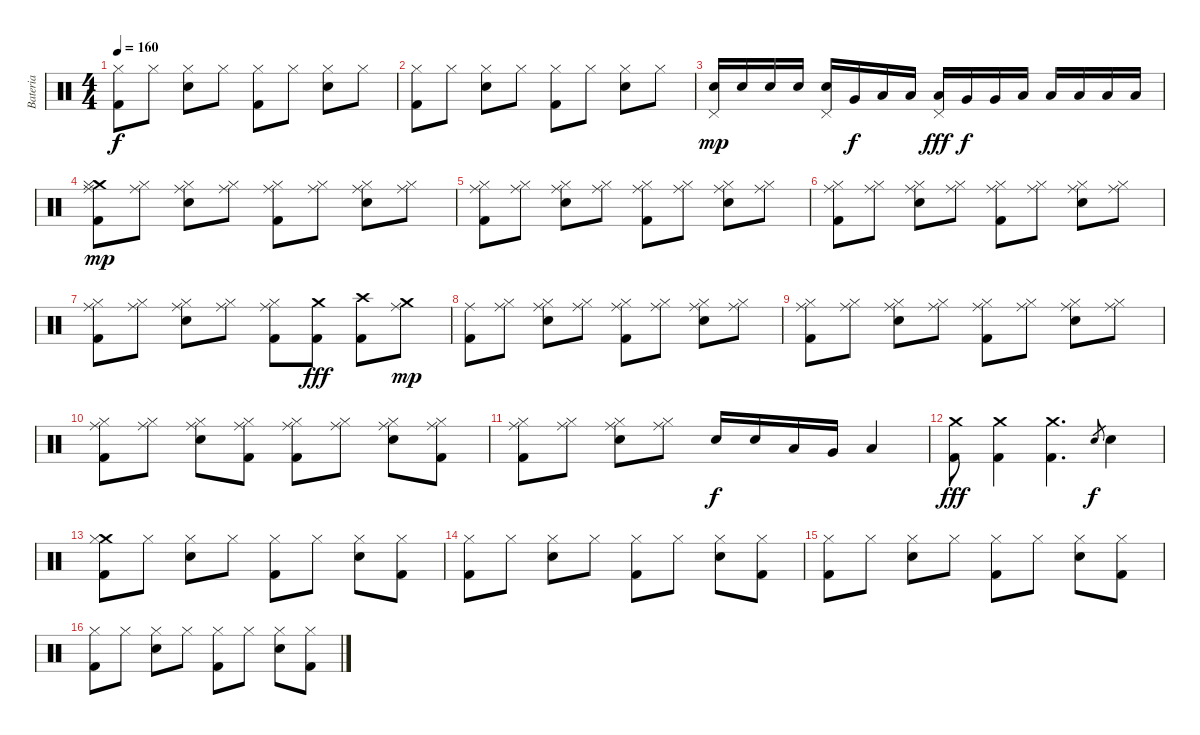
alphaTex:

\track ("Bateria" "Bateria") {instrument percussion}
\staff {score}
\articulation defaults
\ts (4 4)
\tempo 160
\clef neutral
\ks c
("Hi-Hat (closed)" "Kick (hit) 2").8{dy f} "Hi-Hat (closed)".8 ("Hi-Hat (closed)" "Electric Snare (hit)").8 "Hi-Hat (closed)".8 ("Hi-Hat (closed)" "Kick (hit) 2").8 "Hi-Hat (closed)".8 ("Hi-Hat (closed)" "Electric Snare (hit)").8 "Hi-Hat (closed)".8 |
("Hi-Hat (closed)" "Kick (hit) 2").8 "Hi-Hat (closed)".8 ("Hi-Hat (closed)" "Electric Snare (hit)").8 "Hi-Hat (closed)".8 ("Hi-Hat (closed)" "Kick (hit) 2").8 "Hi-Hat (closed)".8 ("Hi-Hat (closed)" "Electric Snare (hit)").8 "Hi-Hat (closed)".8 |
("Pedal Hi-Hat (hit)" "Electric Snare (hit)").16{dy mp} "Electric Snare (hit)".16 "Electric Snare (hit)".16 "Electric Snare (hit)".16 ("Pedal Hi-Hat (hit)" "Electric Snare (hit)").16 "Very Low Tom (hit)".16{dy f} "Low Tom (hit)".16 "Low Tom (hit)".16 ("Pedal Hi-Hat (hit)" "Low Tom (hit)").16{dy fff} "Very Low Tom (hit)".16{dy f} "Very Low Tom (hit)".16 "Low Floor Tom (hit)".16 "Low Floor Tom (hit)".16 "Low Floor Tom (hit)".16 "Low Floor Tom (hit)".16 "Low Floor Tom (hit)".16 |
("Crash medium (hit)" "Hi-Hat (closed)" "Kick (hit) 2" "Ride (middle)").8{dy mp} ("Hi-Hat (closed)" "Ride (middle)").8 ("Hi-Hat (closed)" "Electric Snare (hit)" "Ride (middle)").8 ("Hi-Hat (closed)" "Ride (middle)").8 ("Hi-Hat (closed)" "Kick (hit) 2" "Ride (middle)").8 ("Hi-Hat (closed)" "Ride (middle)").8 ("Hi-Hat (closed)" "Electric Snare (hit)" "Ride (middle)").8 ("Hi-Hat (closed)" "Ride (middle)").8 |
("Hi-Hat (closed)" "Kick (hit) 2" "Ride (middle)").8 ("Hi-Hat (closed)" "Ride (middle)").8 ("Hi-Hat (closed)" "Electric Snare (hit)" "Ride (middle)").8 ("Hi-Hat (closed)" "Ride (middle)").8 ("Hi-Hat (closed)" "Kick (hit) 2" "Ride (middle)").8 ("Hi-Hat (closed)" "Ride (middle)").8 ("Hi-Hat (closed)" "Electric Snare (hit)" "Ride (middle)").8 ("Hi-Hat (closed)" "Ride (middle)").8 |
("Hi-Hat (closed)" "Kick (hit) 2" "Ride (middle)").8 ("Hi-Hat (closed)" "Ride (middle)").8 ("Hi-Hat (closed)" "Electric Snare (hit)" "Ride (middle)").8 ("Hi-Hat (closed)" "Ride (middle)").8 ("Hi-Hat (closed)" "Kick (hit) 2" "Ride (middle)").8 ("Hi-Hat (closed)" "Ride (middle)").8 ("Hi-Hat (closed)" "Electric Snare (hit)" "Ride (middle)").8 ("Hi-Hat (closed)" "Ride (middle)").8 |
("Hi-Hat (closed)" "Kick (hit) 2" "Ride (middle)").8 ("Hi-Hat (closed)" "Ride (middle)").8 ("Hi-Hat (closed)" "Electric Snare (hit)" "Ride (middle)").8 ("Hi-Hat (closed)" "Ride (middle)").8 ("Hi-Hat (closed)" "Kick (hit) 2" "Ride (middle)").8 ("Crash medium (hit)" "Kick (hit) 2").8{dy fff} ("Crash high (hit)" "Kick (hit) 2").8 ("Crash medium (hit)" "Ride (middle)").8{dy mp} |
("Kick (hit) 2" "Ride (middle)").8 ("Hi-Hat (closed)" "Ride (middle)").8 ("Hi-Hat (closed)" "Electric Snare (hit)" "Ride (middle)").8 ("Hi-Hat (closed)" "Ride (middle)").8 ("Hi-Hat (closed)" "Kick (hit) 2" "Ride (middle)").8 ("Hi-Hat (closed)" "Ride (middle)").8 ("Hi-Hat (closed)" "Electric Snare (hit)" "Ride (middle)").8 ("Hi-Hat (closed)" "Ride (middle)").8 |
("Hi-Hat (closed)" "Kick (hit) 2" "Ride (middle)").8 ("Hi-Hat (closed)" "Ride (middle)").8 ("Hi-Hat (closed)" "Electric Snare (hit)" "Ride (middle)").8 ("Hi-Hat (closed)" "Ride (middle)").8 ("Hi-Hat (closed)" "Kick (hit) 2" "Ride (middle)").8 ("Hi-Hat (closed)" "Ride (middle)").8 ("Hi-Hat (closed)" "Electric Snare (hit)" "Ride (middle)").8 ("Hi-Hat (closed)" "Ride (middle)").8 |
("Hi-Hat (closed)" "Kick (hit) 2" "Ride (middle)").8 ("Hi-Hat (closed)" "Ride (middle)").8 ("Hi-Hat (closed)" "Electric Snare (hit)" "Ride (middle)").8 ("Hi-Hat (closed)" "Kick (hit) 2" "Ride (middle)").8 ("Hi-Hat (closed)" "Kick (hit) 2" "Ride (middle)").8 ("Hi-Hat (closed)" "Ride (middle)").8 ("Hi-Hat (closed)" "Electric Snare (hit)" "Ride (middle)").8 ("Hi-Hat (closed)" "Kick (hit) 2" "Ride (middle)").8 |
("Hi-Hat (closed)" "Kick (hit) 2" "Ride (middle)").8 ("Hi-Hat (closed)" "Ride (middle)").8 ("Hi-Hat (closed)" "Electric Snare (hit)" "Ride (middle)").8 ("Hi-Hat (closed)" "Ride (middle)").8 "Electric Snare (hit)".16{dy f} "Electric Snare (hit)".16 "Low Tom (hit)".16 "Very Low Tom (hit)".16 "Low Tom (hit)".4 |
("Crash medium (hit)" "Kick (hit) 2").8{dy fff} ("Crash medium (hit)" "Kick (hit) 2").4 ("Crash medium (hit)" "Kick (hit) 2").4{d} "Electric Snare (hit)".8{gr dy f} "Electric Snare (hit)".4 |
("Crash medium (hit)" "Hi-Hat (closed)" "Kick (hit) 2").8 "Hi-Hat (closed)".8 ("Hi-Hat (closed)" "Electric Snare (hit)").8 "Hi-Hat (closed)".8 ("Hi-Hat (closed)" "Kick (hit) 2").8 "Hi-Hat (closed)".8 ("Hi-Hat (closed)" "Electric Snare (hit)").8 ("Hi-Hat (closed)" "Kick (hit) 2").8 |
("Hi-Hat (closed)" "Kick (hit) 2").8 "Hi-Hat (closed)".8 ("Hi-Hat (closed)" "Electric Snare (hit)").8 "Hi-Hat (closed)".8 ("Hi-Hat (closed)" "Kick (hit) 2").8 "Hi-Hat (closed)".8 ("Hi-Hat (closed)" "Electric Snare (hit)").8 ("Hi-Hat (closed)" "Kick (hit) 2").8 |
("Hi-Hat (closed)" "Kick (hit) 2").8 "Hi-Hat (closed)".8 ("Hi-Hat (closed)" "Electric Snare (hit)").8 "Hi-Hat (closed)".8 ("Hi-Hat (closed)" "Kick (hit) 2").8 "Hi-Hat (closed)".8 ("Hi-Hat (closed)" "Electric Snare (hit)").8 ("Hi-Hat (closed)" "Kick (hit) 2").8 |
("Hi-Hat (closed)" "Kick (hit) 2").8 "Hi-Hat (closed)".8 ("Hi-Hat (closed)" "Electric Snare (hit)").8 "Hi-Hat (closed)".8 ("Hi-Hat (closed)" "Kick (hit) 2").8 "Hi-Hat (closed)".8 ("Hi-Hat (closed)" "Electric Snare (hit)").8 ("Hi-Hat (closed)" "Kick (hit) 2").8
